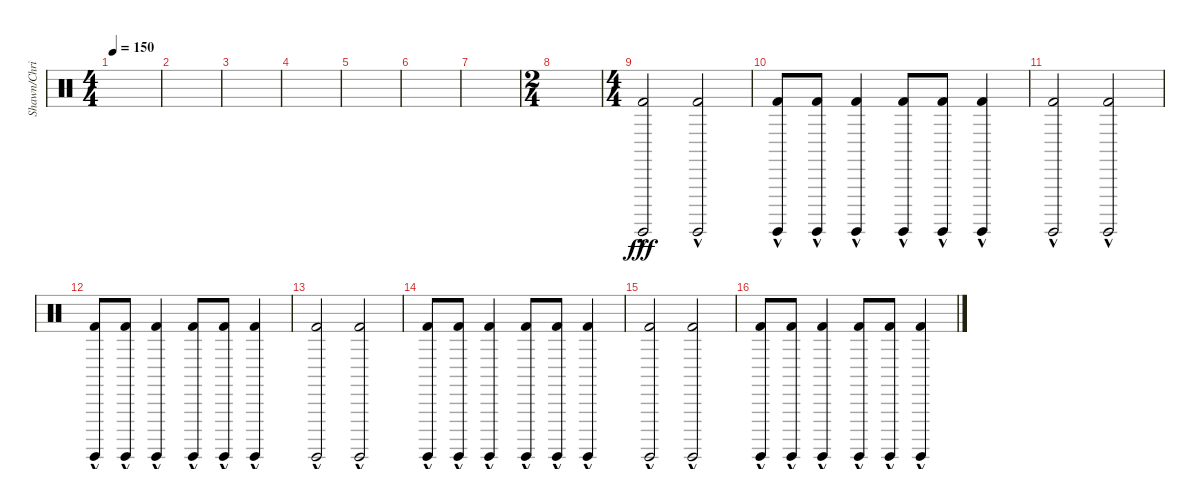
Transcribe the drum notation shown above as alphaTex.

\track ("Shawn/Chris" "Shawn/Chri") {instrument percussion}
\staff {score}
\articulation defaults
\ts (4 4)
\tempo 150
\clef neutral
\ks c
|
|
|
|
|
|
|
\ts (2 4)
|
\ts (4 4)
("Surdo (hit)"{hac} "Kick (hit) 2"{hac}).2{dy fff} ("Surdo (hit)"{hac} "Kick (hit) 2"{hac}).2 |
("Surdo (hit)"{hac} "Kick (hit) 2"{hac}).8 ("Surdo (hit)"{hac} "Kick (hit) 2"{hac}).8 ("Surdo (hit)"{hac} "Kick (hit) 2"{hac}).4 ("Surdo (hit)"{hac} "Kick (hit) 2"{hac}).8 ("Surdo (hit)"{hac} "Kick (hit) 2"{hac}).8 ("Surdo (hit)"{hac} "Kick (hit) 2"{hac}).4 |
("Surdo (hit)"{hac} "Kick (hit) 2"{hac}).2 ("Surdo (hit)"{hac} "Kick (hit) 2"{hac}).2 |
("Surdo (hit)"{hac} "Kick (hit) 2"{hac}).8 ("Surdo (hit)"{hac} "Kick (hit) 2"{hac}).8 ("Surdo (hit)"{hac} "Kick (hit) 2"{hac}).4 ("Surdo (hit)"{hac} "Kick (hit) 2"{hac}).8 ("Surdo (hit)"{hac} "Kick (hit) 2"{hac}).8 ("Surdo (hit)"{hac} "Kick (hit) 2"{hac}).4 |
("Surdo (hit)"{hac} "Kick (hit) 2"{hac}).2 ("Surdo (hit)"{hac} "Kick (hit) 2"{hac}).2 |
("Surdo (hit)"{hac} "Kick (hit) 2"{hac}).8 ("Surdo (hit)"{hac} "Kick (hit) 2"{hac}).8 ("Surdo (hit)"{hac} "Kick (hit) 2"{hac}).4 ("Surdo (hit)"{hac} "Kick (hit) 2"{hac}).8 ("Surdo (hit)"{hac} "Kick (hit) 2"{hac}).8 ("Surdo (hit)"{hac} "Kick (hit) 2"{hac}).4 |
("Surdo (hit)"{hac} "Kick (hit) 2"{hac}).2 ("Surdo (hit)"{hac} "Kick (hit) 2"{hac}).2 |
("Surdo (hit)"{hac} "Kick (hit) 2"{hac}).8 ("Surdo (hit)"{hac} "Kick (hit) 2"{hac}).8 ("Surdo (hit)"{hac} "Kick (hit) 2"{hac}).4 ("Surdo (hit)"{hac} "Kick (hit) 2"{hac}).8 ("Surdo (hit)"{hac} "Kick (hit) 2"{hac}).8 ("Surdo (hit)"{hac} "Kick (hit) 2"{hac}).4
